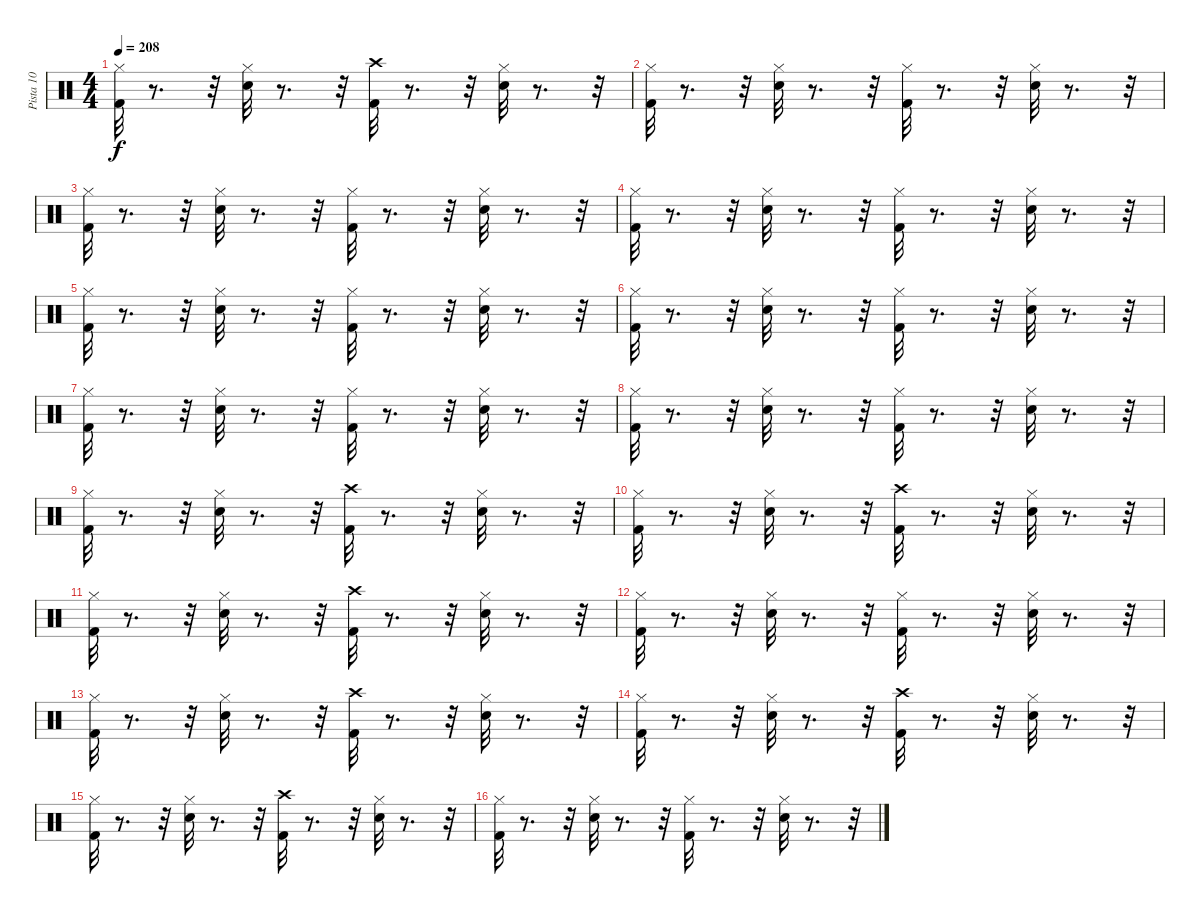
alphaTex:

\track ("Pista 10" "Pista 10") {instrument percussion}
\staff {score}
\articulation defaults
\ts (4 4)
\tempo 208
\clef neutral
\ks c
("Kick (hit) 2" "Hi-Hat (closed)").32{dy f} r.8{d} r.32 ("Snare (hit) 2" "Hi-Hat (closed)").32 r.8{d} r.32 ("Kick (hit) 2" "Crash high (hit)").32 r.8{d} r.32 ("Snare (hit) 2" "Hi-Hat (closed)").32 r.8{d} r.32 |
("Kick (hit) 2" "Hi-Hat (closed)").32 r.8{d} r.32 ("Snare (hit) 2" "Hi-Hat (closed)").32 r.8{d} r.32 ("Hi-Hat (closed)" "Kick (hit) 2").32 r.8{d} r.32 ("Snare (hit) 2" "Hi-Hat (closed)").32 r.8{d} r.32 |
("Kick (hit) 2" "Hi-Hat (closed)").32 r.8{d} r.32 ("Snare (hit) 2" "Hi-Hat (closed)").32 r.8{d} r.32 ("Hi-Hat (closed)" "Kick (hit) 2").32 r.8{d} r.32 ("Snare (hit) 2" "Hi-Hat (closed)").32 r.8{d} r.32 |
("Kick (hit) 2" "Hi-Hat (closed)").32 r.8{d} r.32 ("Snare (hit) 2" "Hi-Hat (closed)").32 r.8{d} r.32 ("Hi-Hat (closed)" "Kick (hit) 2").32 r.8{d} r.32 ("Snare (hit) 2" "Hi-Hat (closed)").32 r.8{d} r.32 |
("Kick (hit) 2" "Hi-Hat (closed)").32 r.8{d} r.32 ("Snare (hit) 2" "Hi-Hat (closed)").32 r.8{d} r.32 ("Hi-Hat (closed)" "Kick (hit) 2").32 r.8{d} r.32 ("Snare (hit) 2" "Hi-Hat (closed)").32 r.8{d} r.32 |
("Kick (hit) 2" "Hi-Hat (closed)").32 r.8{d} r.32 ("Snare (hit) 2" "Hi-Hat (closed)").32 r.8{d} r.32 ("Hi-Hat (closed)" "Kick (hit) 2").32 r.8{d} r.32 ("Snare (hit) 2" "Hi-Hat (closed)").32 r.8{d} r.32 |
("Kick (hit) 2" "Hi-Hat (closed)").32 r.8{d} r.32 ("Snare (hit) 2" "Hi-Hat (closed)").32 r.8{d} r.32 ("Hi-Hat (closed)" "Kick (hit) 2").32 r.8{d} r.32 ("Snare (hit) 2" "Hi-Hat (closed)").32 r.8{d} r.32 |
("Kick (hit) 2" "Hi-Hat (closed)").32 r.8{d} r.32 ("Snare (hit) 2" "Hi-Hat (closed)").32 r.8{d} r.32 ("Hi-Hat (closed)" "Kick (hit) 2").32 r.8{d} r.32 ("Snare (hit) 2" "Hi-Hat (closed)").32 r.8{d} r.32 |
("Kick (hit) 2" "Hi-Hat (closed)").32 r.8{d} r.32 ("Snare (hit) 2" "Hi-Hat (closed)").32 r.8{d} r.32 ("Crash high (hit)" "Kick (hit) 2").32 r.8{d} r.32 ("Snare (hit) 2" "Hi-Hat (closed)").32 r.8{d} r.32 |
("Kick (hit) 2" "Hi-Hat (closed)").32 r.8{d} r.32 ("Snare (hit) 2" "Hi-Hat (closed)").32 r.8{d} r.32 ("Crash high (hit)" "Kick (hit) 2").32 r.8{d} r.32 ("Snare (hit) 2" "Hi-Hat (closed)").32 r.8{d} r.32 |
("Kick (hit) 2" "Hi-Hat (closed)").32 r.8{d} r.32 ("Snare (hit) 2" "Hi-Hat (closed)").32 r.8{d} r.32 ("Crash high (hit)" "Kick (hit) 2").32 r.8{d} r.32 ("Snare (hit) 2" "Hi-Hat (closed)").32 r.8{d} r.32 |
("Kick (hit) 2" "Hi-Hat (closed)").32 r.8{d} r.32 ("Snare (hit) 2" "Hi-Hat (closed)").32 r.8{d} r.32 ("Kick (hit) 2" "Hi-Hat (closed)").32 r.8{d} r.32 ("Snare (hit) 2" "Hi-Hat (closed)").32 r.8{d} r.32 |
("Kick (hit) 2" "Hi-Hat (closed)").32 r.8{d} r.32 ("Snare (hit) 2" "Hi-Hat (closed)").32 r.8{d} r.32 ("Crash high (hit)" "Kick (hit) 2").32 r.8{d} r.32 ("Snare (hit) 2" "Hi-Hat (closed)").32 r.8{d} r.32 |
("Kick (hit) 2" "Hi-Hat (closed)").32 r.8{d} r.32 ("Snare (hit) 2" "Hi-Hat (closed)").32 r.8{d} r.32 ("Crash high (hit)" "Kick (hit) 2").32 r.8{d} r.32 ("Snare (hit) 2" "Hi-Hat (closed)").32 r.8{d} r.32 |
("Kick (hit) 2" "Hi-Hat (closed)").32 r.8{d} r.32 ("Snare (hit) 2" "Hi-Hat (closed)").32 r.8{d} r.32 ("Crash high (hit)" "Kick (hit) 2").32 r.8{d} r.32 ("Snare (hit) 2" "Hi-Hat (closed)").32 r.8{d} r.32 |
("Kick (hit) 2" "Hi-Hat (closed)").32 r.8{d} r.32 ("Snare (hit) 2" "Hi-Hat (closed)").32 r.8{d} r.32 ("Kick (hit) 2" "Hi-Hat (closed)").32 r.8{d} r.32 ("Snare (hit) 2" "Hi-Hat (closed)").32 r.8{d} r.32
